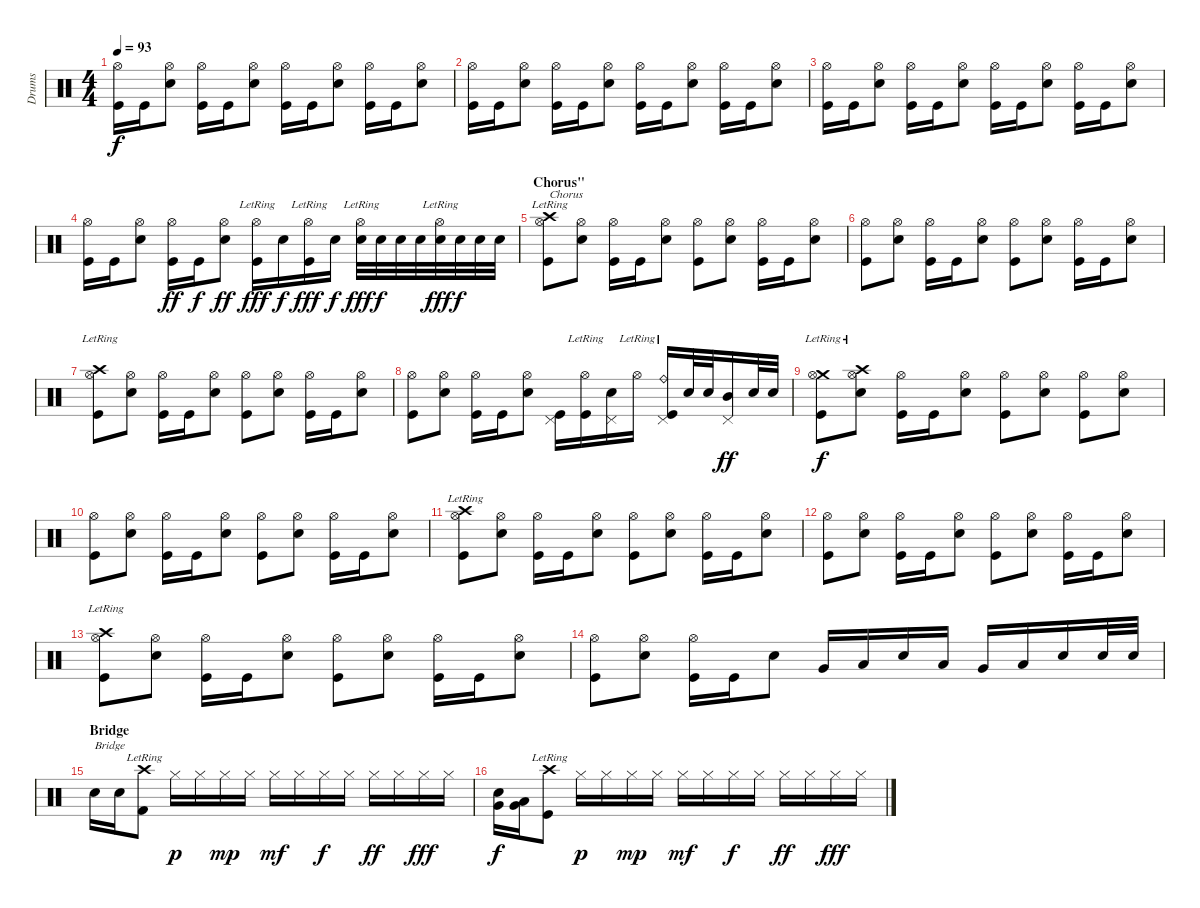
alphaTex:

\track ("Drums" "Drums") {instrument percussion}
\staff {score}
\articulation defaults
\ts (4 4)
\tempo 93
\clef neutral
\ks c
("Hi-Hat (open)" "Kick (hit)").16{dy f} "Kick (hit)".16 ("Hi-Hat (open)" "Snare (hit) 2").8 ("Hi-Hat (open)" "Kick (hit)").16 "Kick (hit)".16 ("Hi-Hat (open)" "Snare (hit) 2").8 ("Hi-Hat (open)" "Kick (hit)").16 "Kick (hit)".16 ("Hi-Hat (open)" "Snare (hit) 2").8 ("Hi-Hat (open)" "Kick (hit)").16 "Kick (hit)".16 ("Hi-Hat (open)" "Snare (hit) 2").8 |
("Hi-Hat (open)" "Kick (hit)").16 "Kick (hit)".16 ("Hi-Hat (open)" "Snare (hit) 2").8 ("Hi-Hat (open)" "Kick (hit)").16 "Kick (hit)".16 ("Hi-Hat (open)" "Snare (hit) 2").8 ("Hi-Hat (open)" "Kick (hit)").16 "Kick (hit)".16 ("Hi-Hat (open)" "Snare (hit) 2").8 ("Hi-Hat (open)" "Kick (hit)").16 "Kick (hit)".16 ("Hi-Hat (open)" "Snare (hit) 2").8 |
("Hi-Hat (open)" "Kick (hit)").16 "Kick (hit)".16 ("Hi-Hat (open)" "Snare (hit) 2").8 ("Hi-Hat (open)" "Kick (hit)").16 "Kick (hit)".16 ("Hi-Hat (open)" "Snare (hit) 2").8 ("Hi-Hat (open)" "Kick (hit)").16 "Kick (hit)".16 ("Hi-Hat (open)" "Snare (hit) 2").8 ("Hi-Hat (open)" "Kick (hit)").16 "Kick (hit)".16 ("Hi-Hat (open)" "Snare (hit) 2").8 |
("Hi-Hat (open)" "Kick (hit)").16 "Kick (hit)".16 ("Hi-Hat (open)" "Snare (hit) 2").8 ("Hi-Hat (open)" "Kick (hit)").16{dy ff} "Kick (hit)".16{dy f} ("Hi-Hat (open)" "Snare (hit) 2").8{dy ff} ("Hi-Hat (open)"{lr} "Kick (hit)").16{dy fff} "Snare (hit) 2".16{dy f} ("Hi-Hat (open)"{lr} "Kick (hit)").16{dy fff} "Snare (hit) 2".16{dy f} ("Hi-Hat (open)"{lr} "Snare (hit) 2").32{dy fff} "Snare (hit) 2".32{dy f} "Snare (hit) 2".32 "Snare (hit) 2".32 ("Hi-Hat (open)"{lr} "Snare (hit) 2").32{dy fff} "Snare (hit) 2".32{dy f} "Snare (hit) 2".32 "Snare (hit) 2".32 |
\section ("" "Chorus''")
("Crash high (hit)"{lr} "Hi-Hat (open)" "Kick (hit)").8{txt "Chorus"} ("Hi-Hat (open)" "Snare (hit) 2").8 ("Hi-Hat (open)" "Kick (hit)").16 "Kick (hit)".16 ("Hi-Hat (open)" "Snare (hit) 2").8 ("Hi-Hat (open)" "Kick (hit)").8 ("Hi-Hat (open)" "Snare (hit) 2").8 ("Hi-Hat (open)" "Kick (hit)").16 "Kick (hit)".16 ("Hi-Hat (open)" "Snare (hit) 2").8 |
("Hi-Hat (open)" "Kick (hit)").8 ("Hi-Hat (open)" "Snare (hit) 2").8 ("Hi-Hat (open)" "Kick (hit)").16 "Kick (hit)".16 ("Hi-Hat (open)" "Snare (hit) 2").8 ("Hi-Hat (open)" "Kick (hit)").8 ("Hi-Hat (open)" "Snare (hit) 2").8 ("Hi-Hat (open)" "Kick (hit)").16 "Kick (hit)".16 ("Hi-Hat (open)" "Snare (hit) 2").8 |
("Crash high (hit)"{lr} "Hi-Hat (open)" "Kick (hit)").8 ("Hi-Hat (open)" "Snare (hit) 2").8 ("Hi-Hat (open)" "Kick (hit)").16 "Kick (hit)".16 ("Hi-Hat (open)" "Snare (hit) 2").8 ("Hi-Hat (open)" "Kick (hit)").8 ("Hi-Hat (open)" "Snare (hit) 2").8 ("Hi-Hat (open)" "Kick (hit)").16 "Kick (hit)".16 ("Hi-Hat (open)" "Snare (hit) 2").8 |
("Hi-Hat (open)" "Kick (hit)").8 ("Hi-Hat (open)" "Snare (hit) 2").8 ("Hi-Hat (open)" "Kick (hit)").16 "Kick (hit)".16 ("Hi-Hat (open)" "Snare (hit) 2").8 ("Pedal Hi-Hat (hit)" "Kick (hit)").16 ("Hi-Hat (open)"{lr} "Kick (hit)").16 ("Pedal Hi-Hat (hit)" "Snare (hit) 2").16 "Hi-Hat (open)"{lr}.16 ("Pedal Hi-Hat (hit)" "Ride (bell)"{lr} "Kick (hit)").16 "Snare (hit) 2".32 "Snare (hit) 2".32 ("Pedal Hi-Hat (hit)" "Mid Tom (hit)").16{dy ff} "Snare (hit) 2".32 "Snare (hit) 2".32 |
("Crash medium (hit)"{lr} "Hi-Hat (open)" "Kick (hit)").8{dy f} ("Crash high (hit)"{lr} "Hi-Hat (open)" "Snare (hit) 2").8 ("Hi-Hat (open)" "Kick (hit)").16 "Kick (hit)".16 ("Hi-Hat (open)" "Snare (hit) 2").8 ("Hi-Hat (open)" "Kick (hit)").8 ("Hi-Hat (open)" "Snare (hit) 2").8 ("Hi-Hat (open)" "Kick (hit)").8 ("Hi-Hat (open)" "Snare (hit) 2").8 |
("Hi-Hat (open)" "Kick (hit)").8 ("Hi-Hat (open)" "Snare (hit) 2").8 ("Hi-Hat (open)" "Kick (hit)").16 "Kick (hit)".16 ("Hi-Hat (open)" "Snare (hit) 2").8 ("Hi-Hat (open)" "Kick (hit)").8 ("Hi-Hat (open)" "Snare (hit) 2").8 ("Hi-Hat (open)" "Kick (hit)").16 "Kick (hit)".16 ("Hi-Hat (open)" "Snare (hit) 2").8 |
("Crash high (hit)"{lr} "Hi-Hat (open)" "Kick (hit)").8 ("Hi-Hat (open)" "Snare (hit) 2").8 ("Hi-Hat (open)" "Kick (hit)").16 "Kick (hit)".16 ("Hi-Hat (open)" "Snare (hit) 2").8 ("Hi-Hat (open)" "Kick (hit)").8 ("Hi-Hat (open)" "Snare (hit) 2").8 ("Hi-Hat (open)" "Kick (hit)").16 "Kick (hit)".16 ("Hi-Hat (open)" "Snare (hit) 2").8 |
("Hi-Hat (open)" "Kick (hit)").8 ("Hi-Hat (open)" "Snare (hit) 2").8 ("Hi-Hat (open)" "Kick (hit)").16 "Kick (hit)".16 ("Hi-Hat (open)" "Snare (hit) 2").8 ("Hi-Hat (open)" "Kick (hit)").8 ("Hi-Hat (open)" "Snare (hit) 2").8 ("Hi-Hat (open)" "Kick (hit)").16 "Kick (hit)".16 ("Hi-Hat (open)" "Snare (hit) 2").8 |
("Crash high (hit)"{lr} "Hi-Hat (open)" "Kick (hit)").8 ("Hi-Hat (open)" "Snare (hit) 2").8 ("Hi-Hat (open)" "Kick (hit)").16 "Kick (hit)".16 ("Hi-Hat (open)" "Snare (hit) 2").8 ("Hi-Hat (open)" "Kick (hit)").8 ("Hi-Hat (open)" "Snare (hit) 2").8 ("Hi-Hat (open)" "Kick (hit)").16 "Kick (hit)".16 ("Hi-Hat (open)" "Snare (hit) 2").8 |
("Hi-Hat (open)" "Kick (hit)").8 ("Hi-Hat (open)" "Snare (hit) 2").8 ("Hi-Hat (open)" "Kick (hit)").16 "Kick (hit)".16 "Snare (hit) 2".8 "Very Low Tom (hit)".16 "Low Tom (hit)".16 "Snare (hit) 2".16 "Low Tom (hit)".16 "Very Low Tom (hit)".16 "Low Tom (hit)".16 "Snare (hit) 2".16 "Snare (hit) 2".32 "Snare (hit) 2".32 |
\section ("" "Bridge")
"Snare (hit) 2".16{txt "Bridge"} "Snare (hit) 2".16 ("Crash high (hit)"{lr} "Kick (hit) 2").8 "Hi-Hat (closed)".16{dy p} "Hi-Hat (closed)".16 "Hi-Hat (closed)".16{dy mp} "Hi-Hat (closed)".16 "Hi-Hat (closed)".16{dy mf} "Hi-Hat (closed)".16 "Hi-Hat (closed)".16{dy f} "Hi-Hat (closed)".16 "Hi-Hat (closed)".16{dy ff} "Hi-Hat (closed)".16 "Hi-Hat (closed)".16{dy fff} "Hi-Hat (closed)".16 |
("Very Low Tom (hit)" "Snare (hit) 2").16{dy f} ("Very Low Tom (hit)" "Low Tom (hit)").16 ("Crash high (hit)"{lr} "Kick (hit)").8 "Hi-Hat (closed)".16{dy p} "Hi-Hat (closed)".16 "Hi-Hat (closed)".16{dy mp} "Hi-Hat (closed)".16 "Hi-Hat (closed)".16{dy mf} "Hi-Hat (closed)".16 "Hi-Hat (closed)".16{dy f} "Hi-Hat (closed)".16 "Hi-Hat (closed)".16{dy ff} "Hi-Hat (closed)".16 "Hi-Hat (closed)".16{dy fff} "Hi-Hat (closed)".16
